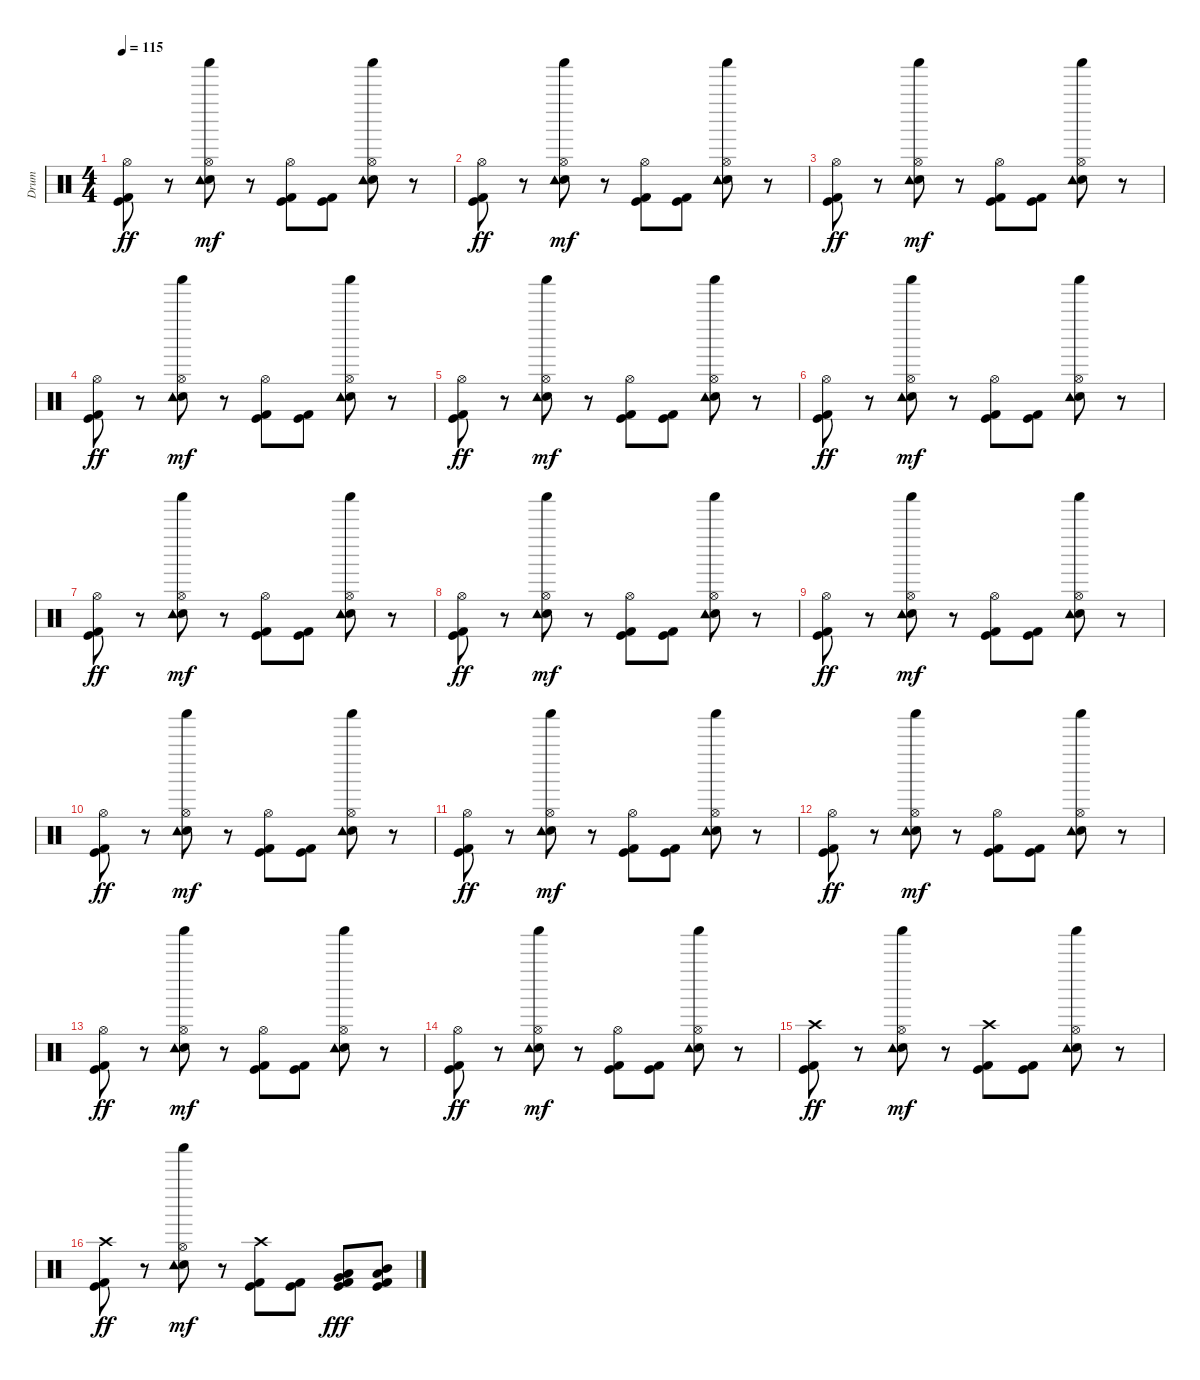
\track ("Drum" "Drum") {instrument percussion}
\staff {score}
\articulation defaults
\ts (4 4)
\tempo 115
\clef neutral
\ks c
("Hi-Hat (open)" "Kick (hit)" "Kick (hit) 2").8{dy ff} r.8 ("Hi-Hat (open)" "Shaker (hit)" "Snare (hit) 2" "Tambourine (hit)").8{dy mf} r.8 ("Hi-Hat (open)" "Kick (hit)" "Kick (hit) 2").8 ("Kick (hit)" "Kick (hit) 2").8 ("Hi-Hat (open)" "Shaker (hit)" "Snare (hit) 2" "Tambourine (hit)").8 r.8 |
("Hi-Hat (open)" "Kick (hit)" "Kick (hit) 2").8{dy ff} r.8 ("Hi-Hat (open)" "Shaker (hit)" "Snare (hit) 2" "Tambourine (hit)").8{dy mf} r.8 ("Hi-Hat (open)" "Kick (hit)" "Kick (hit) 2").8 ("Kick (hit)" "Kick (hit) 2").8 ("Hi-Hat (open)" "Shaker (hit)" "Snare (hit) 2" "Tambourine (hit)").8 r.8 |
("Hi-Hat (open)" "Kick (hit)" "Kick (hit) 2").8{dy ff} r.8 ("Hi-Hat (open)" "Shaker (hit)" "Snare (hit) 2" "Tambourine (hit)").8{dy mf} r.8 ("Hi-Hat (open)" "Kick (hit)" "Kick (hit) 2").8 ("Kick (hit)" "Kick (hit) 2").8 ("Hi-Hat (open)" "Shaker (hit)" "Snare (hit) 2" "Tambourine (hit)").8 r.8 |
("Hi-Hat (open)" "Kick (hit)" "Kick (hit) 2").8{dy ff} r.8 ("Hi-Hat (open)" "Shaker (hit)" "Snare (hit) 2" "Tambourine (hit)").8{dy mf} r.8 ("Hi-Hat (open)" "Kick (hit)" "Kick (hit) 2").8 ("Kick (hit)" "Kick (hit) 2").8 ("Hi-Hat (open)" "Shaker (hit)" "Snare (hit) 2" "Tambourine (hit)").8 r.8 |
("Hi-Hat (open)" "Kick (hit)" "Kick (hit) 2").8{dy ff} r.8 ("Hi-Hat (open)" "Shaker (hit)" "Snare (hit) 2" "Tambourine (hit)").8{dy mf} r.8 ("Hi-Hat (open)" "Kick (hit)" "Kick (hit) 2").8 ("Kick (hit)" "Kick (hit) 2").8 ("Hi-Hat (open)" "Shaker (hit)" "Snare (hit) 2" "Tambourine (hit)").8 r.8 |
("Hi-Hat (open)" "Kick (hit)" "Kick (hit) 2").8{dy ff} r.8 ("Hi-Hat (open)" "Shaker (hit)" "Snare (hit) 2" "Tambourine (hit)").8{dy mf} r.8 ("Hi-Hat (open)" "Kick (hit)" "Kick (hit) 2").8 ("Kick (hit)" "Kick (hit) 2").8 ("Hi-Hat (open)" "Shaker (hit)" "Snare (hit) 2" "Tambourine (hit)").8 r.8 |
("Hi-Hat (open)" "Kick (hit)" "Kick (hit) 2").8{dy ff} r.8 ("Hi-Hat (open)" "Shaker (hit)" "Snare (hit) 2" "Tambourine (hit)").8{dy mf} r.8 ("Hi-Hat (open)" "Kick (hit)" "Kick (hit) 2").8 ("Kick (hit)" "Kick (hit) 2").8 ("Hi-Hat (open)" "Shaker (hit)" "Snare (hit) 2" "Tambourine (hit)").8 r.8 |
("Hi-Hat (open)" "Kick (hit)" "Kick (hit) 2").8{dy ff} r.8 ("Hi-Hat (open)" "Shaker (hit)" "Snare (hit) 2" "Tambourine (hit)").8{dy mf} r.8 ("Hi-Hat (open)" "Kick (hit)" "Kick (hit) 2").8 ("Kick (hit)" "Kick (hit) 2").8 ("Hi-Hat (open)" "Shaker (hit)" "Snare (hit) 2" "Tambourine (hit)").8 r.8 |
("Hi-Hat (open)" "Kick (hit)" "Kick (hit) 2").8{dy ff} r.8 ("Hi-Hat (open)" "Shaker (hit)" "Snare (hit) 2" "Tambourine (hit)").8{dy mf} r.8 ("Hi-Hat (open)" "Kick (hit)" "Kick (hit) 2").8 ("Kick (hit)" "Kick (hit) 2").8 ("Hi-Hat (open)" "Shaker (hit)" "Snare (hit) 2" "Tambourine (hit)").8 r.8 |
("Hi-Hat (open)" "Kick (hit)" "Kick (hit) 2").8{dy ff} r.8 ("Hi-Hat (open)" "Shaker (hit)" "Snare (hit) 2" "Tambourine (hit)").8{dy mf} r.8 ("Hi-Hat (open)" "Kick (hit)" "Kick (hit) 2").8 ("Kick (hit)" "Kick (hit) 2").8 ("Hi-Hat (open)" "Shaker (hit)" "Snare (hit) 2" "Tambourine (hit)").8 r.8 |
("Hi-Hat (open)" "Kick (hit)" "Kick (hit) 2").8{dy ff} r.8 ("Hi-Hat (open)" "Shaker (hit)" "Snare (hit) 2" "Tambourine (hit)").8{dy mf} r.8 ("Hi-Hat (open)" "Kick (hit)" "Kick (hit) 2").8 ("Kick (hit)" "Kick (hit) 2").8 ("Hi-Hat (open)" "Shaker (hit)" "Snare (hit) 2" "Tambourine (hit)").8 r.8 |
("Hi-Hat (open)" "Kick (hit)" "Kick (hit) 2").8{dy ff} r.8 ("Hi-Hat (open)" "Shaker (hit)" "Snare (hit) 2" "Tambourine (hit)").8{dy mf} r.8 ("Hi-Hat (open)" "Kick (hit)" "Kick (hit) 2").8 ("Kick (hit)" "Kick (hit) 2").8 ("Hi-Hat (open)" "Shaker (hit)" "Snare (hit) 2" "Tambourine (hit)").8 r.8 |
("Hi-Hat (open)" "Kick (hit)" "Kick (hit) 2").8{dy ff} r.8 ("Hi-Hat (open)" "Shaker (hit)" "Snare (hit) 2" "Tambourine (hit)").8{dy mf} r.8 ("Hi-Hat (open)" "Kick (hit)" "Kick (hit) 2").8 ("Kick (hit)" "Kick (hit) 2").8 ("Hi-Hat (open)" "Shaker (hit)" "Snare (hit) 2" "Tambourine (hit)").8 r.8 |
("Hi-Hat (open)" "Kick (hit)" "Kick (hit) 2").8{dy ff} r.8 ("Hi-Hat (open)" "Shaker (hit)" "Snare (hit) 2" "Tambourine (hit)").8{dy mf} r.8 ("Hi-Hat (open)" "Kick (hit)" "Kick (hit) 2").8 ("Kick (hit)" "Kick (hit) 2").8 ("Hi-Hat (open)" "Shaker (hit)" "Snare (hit) 2" "Tambourine (hit)").8 r.8 |
("Crash high (hit)" "Kick (hit)" "Kick (hit) 2").8{dy ff} r.8 ("Hi-Hat (open)" "Shaker (hit)" "Snare (hit) 2" "Tambourine (hit)").8{dy mf} r.8 ("Crash high (hit)" "Kick (hit)" "Kick (hit) 2").8 ("Kick (hit)" "Kick (hit) 2").8 ("Hi-Hat (open)" "Shaker (hit)" "Snare (hit) 2" "Tambourine (hit)").8 r.8 |
("Crash high (hit)" "Kick (hit)" "Kick (hit) 2").8{dy ff} r.8 ("Hi-Hat (open)" "Shaker (hit)" "Snare (hit) 2" "Tambourine (hit)").8{dy mf} r.8 ("Crash high (hit)" "Kick (hit)" "Kick (hit) 2").8 ("Kick (hit)" "Kick (hit) 2").8 ("Very Low Tom (hit)" "Low Floor Tom (hit)" "Kick (hit)" "Kick (hit) 2").8{dy fff} ("Low Tom (hit)" "Mid Tom (hit)" "Kick (hit)" "Kick (hit) 2").8
